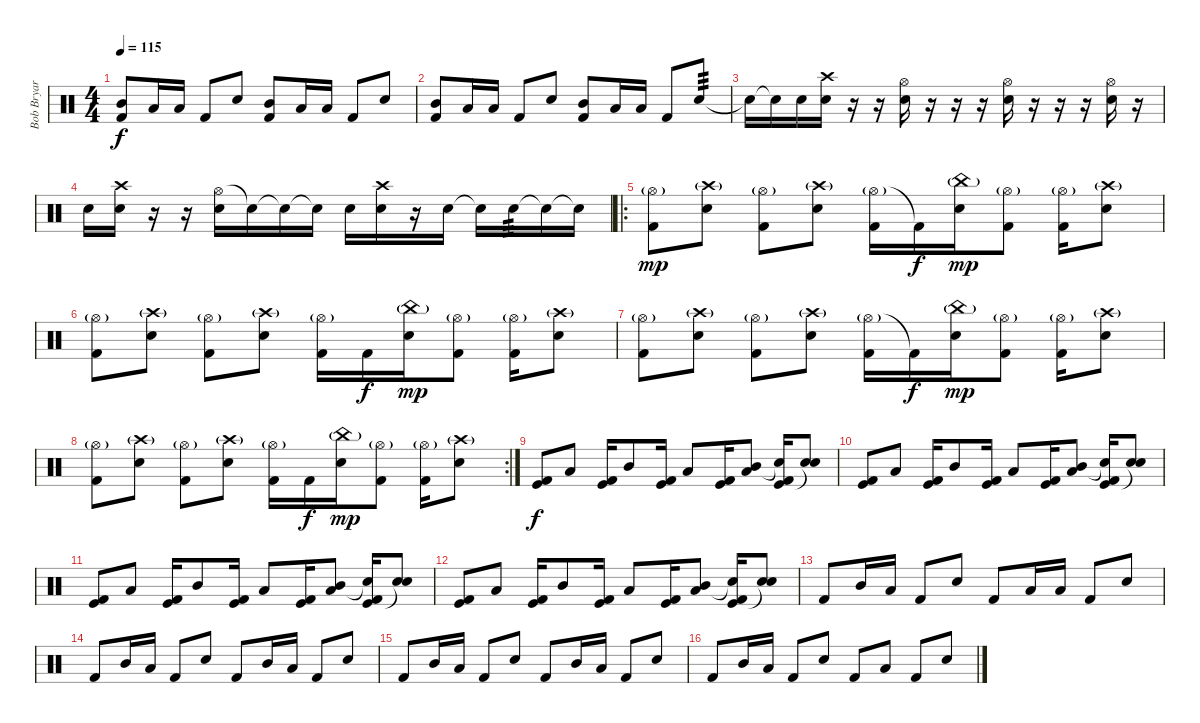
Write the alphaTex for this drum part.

\track ("Bob Bryar [Drums]" "Bob Bryar ") {instrument percussion}
\staff {score}
\articulation defaults
\ts (4 4)
\tempo 115
\clef neutral
\ks c
("Mid Tom (hit)" "Kick (hit) 2").8{dy f} "Low Tom (hit)".16 "Low Tom (hit)".16 "Kick (hit) 2".8 "Electric Snare (hit)".8 ("Mid Tom (hit)" "Kick (hit) 2").8 "Low Tom (hit)".16 "Low Tom (hit)".16 "Kick (hit) 2".8 "Electric Snare (hit)".8 |
("Mid Tom (hit)" "Kick (hit) 2").8 "Low Tom (hit)".16 "Low Tom (hit)".16 "Kick (hit) 2".8 "Electric Snare (hit)".8 ("Mid Tom (hit)" "Kick (hit) 2").8 "Low Tom (hit)".16 "Low Tom (hit)".16 "Kick (hit) 2".8 "Electric Snare (hit)".8{tp 3} |
"Electric Snare (hit)"{t}.16 "Snare (hit)"{t}.16 "Electric Snare (hit)".16 ("Crash high (hit)" "Electric Snare (hit)").16 r.16 r.16 ("Hi-Hat (open)" "Electric Snare (hit)").16 r.16 r.16 r.16 ("Hi-Hat (open)" "Electric Snare (hit)").16 r.16 r.16 r.16 ("Hi-Hat (open)" "Electric Snare (hit)").16 r.16 |
"Electric Snare (hit)".16 ("Crash high (hit)" "Electric Snare (hit)").16 r.16 r.16 ("Hi-Hat (open)" "Electric Snare (hit)").16 "Snare (hit)"{t}.16 "Snare (hit)"{t}.16 "Snare (hit)"{t}.16 "Electric Snare (hit)".16 ("Crash high (hit)" "Electric Snare (hit)").16 r.16 "Electric Snare (hit)".16 "Electric Snare (hit)"{t}.16 "Electric Snare (hit)".16{tp 3} "Snare (hit)"{t}.16 "Snare (hit)"{t}.16 |
\ro
("Hi-Hat (open)"{g} "Kick (hit) 2").8{dy mp} ("Crash high (hit)"{g} "Electric Snare (hit)").8 ("Hi-Hat (open)"{g} "Kick (hit) 2").8 ("Crash high (hit)"{g} "Electric Snare (hit)").8 ("Hi-Hat (open)"{g} "Kick (hit) 2").16 "Kick (hit) 2"{t}.16{dy f} ("China (hit)"{g} "Electric Snare (hit)").16{dy mp} ("Hi-Hat (open)"{g} "Kick (hit) 2").8 ("Hi-Hat (open)"{g} "Kick (hit) 2").16 ("Crash high (hit)"{g} "Electric Snare (hit)").8 |
("Hi-Hat (open)"{g} "Kick (hit) 2").8 ("Crash high (hit)"{g} "Electric Snare (hit)").8 ("Hi-Hat (open)"{g} "Kick (hit) 2").8 ("Crash high (hit)"{g} "Electric Snare (hit)").8 ("Hi-Hat (open)"{g} "Kick (hit) 2").16 "Kick (hit) 2".16{dy f} ("China (hit)"{g} "Electric Snare (hit)").16{dy mp} ("Hi-Hat (open)"{g} "Kick (hit) 2").8 ("Hi-Hat (open)"{g} "Kick (hit) 2").16 ("Crash high (hit)"{g} "Electric Snare (hit)").8 |
("Hi-Hat (open)"{g} "Kick (hit) 2").8 ("Crash high (hit)"{g} "Electric Snare (hit)").8 ("Hi-Hat (open)"{g} "Kick (hit) 2").8 ("Crash high (hit)"{g} "Electric Snare (hit)").8 ("Hi-Hat (open)"{g} "Kick (hit) 2").16 "Kick (hit) 2"{t}.16{dy f} ("China (hit)"{g} "Electric Snare (hit)").16{dy mp} ("Hi-Hat (open)"{g} "Kick (hit) 2").8 ("Hi-Hat (open)"{g} "Kick (hit) 2").16 ("Crash high (hit)"{g} "Electric Snare (hit)").8 |
\rc 2
("Hi-Hat (open)"{g} "Kick (hit) 2").8 ("Crash high (hit)"{g} "Electric Snare (hit)").8 ("Hi-Hat (open)"{g} "Kick (hit) 2").8 ("Crash high (hit)"{g} "Electric Snare (hit)").8 ("Hi-Hat (open)"{g} "Kick (hit) 2").16 "Kick (hit) 2".16{dy f} ("China (hit)"{g} "Electric Snare (hit)").16{dy mp} ("Hi-Hat (open)"{g} "Kick (hit) 2").8 ("Hi-Hat (open)"{g} "Kick (hit) 2").16 ("Crash high (hit)"{g} "Electric Snare (hit)").8 |
("Kick (hit)" "Kick (hit) 2").8{dy f} "Low Tom (hit)".8 ("Kick (hit)" "Kick (hit) 2").16 "Mid Tom (hit)".8 ("Kick (hit)" "Kick (hit) 2").16 "Low Tom (hit)".8 ("Kick (hit)" "Kick (hit) 2").16 ("Low Tom (hit)" "Mid Tom (hit)").8 ("Snare (hit)"{t} "Kick (hit)" "Kick (hit) 2").16 ("Electric Snare (hit)" "Snare (hit)"{t}).8 |
("Kick (hit)" "Kick (hit) 2").8 "Low Tom (hit)".8 ("Kick (hit)" "Kick (hit) 2").16 "Mid Tom (hit)".8 ("Kick (hit)" "Kick (hit) 2").16 "Low Tom (hit)".8 ("Kick (hit)" "Kick (hit) 2").16 ("Low Tom (hit)" "Mid Tom (hit)").8 ("Snare (hit)"{t} "Kick (hit)" "Kick (hit) 2").16 ("Electric Snare (hit)" "Snare (hit)"{t}).8 |
("Kick (hit)" "Kick (hit) 2").8 "Low Tom (hit)".8 ("Kick (hit)" "Kick (hit) 2").16 "Mid Tom (hit)".8 ("Kick (hit)" "Kick (hit) 2").16 "Low Tom (hit)".8 ("Kick (hit)" "Kick (hit) 2").16 ("Low Tom (hit)" "Mid Tom (hit)").8 ("Snare (hit)"{t} "Kick (hit)" "Kick (hit) 2").16 ("Electric Snare (hit)" "Snare (hit)"{t}).8 |
("Kick (hit)" "Kick (hit) 2").8 "Low Tom (hit)".8 ("Kick (hit)" "Kick (hit) 2").16 "Mid Tom (hit)".8 ("Kick (hit)" "Kick (hit) 2").16 "Low Tom (hit)".8 ("Kick (hit)" "Kick (hit) 2").16 ("Low Tom (hit)" "Mid Tom (hit)").8 ("Snare (hit)"{t} "Kick (hit)" "Kick (hit) 2").16 ("Electric Snare (hit)" "Snare (hit)"{t}).8 |
"Kick (hit) 2".8 "Mid Tom (hit)".16 "Low Tom (hit)".16 "Kick (hit) 2".8 "Electric Snare (hit)".8 "Kick (hit) 2".8 "Low Tom (hit)".16 "Low Tom (hit)".16 "Kick (hit) 2".8 "Electric Snare (hit)".8 |
"Kick (hit) 2".8 "Mid Tom (hit)".16 "Low Tom (hit)".16 "Kick (hit) 2".8 "Electric Snare (hit)".8 "Kick (hit) 2".8 "Mid Tom (hit)".16 "Low Tom (hit)".16 "Kick (hit) 2".8 "Electric Snare (hit)".8 |
"Kick (hit) 2".8 "Mid Tom (hit)".16 "Low Tom (hit)".16 "Kick (hit) 2".8 "Electric Snare (hit)".8 "Kick (hit) 2".8 "Mid Tom (hit)".16 "Low Tom (hit)".16 "Kick (hit) 2".8 "Electric Snare (hit)".8 |
"Kick (hit) 2".8 "Mid Tom (hit)".16 "Low Tom (hit)".16 "Kick (hit) 2".8 "Electric Snare (hit)".8 "Kick (hit) 2".8 "Low Tom (hit)".8 "Kick (hit) 2".8 "Electric Snare (hit)".8
